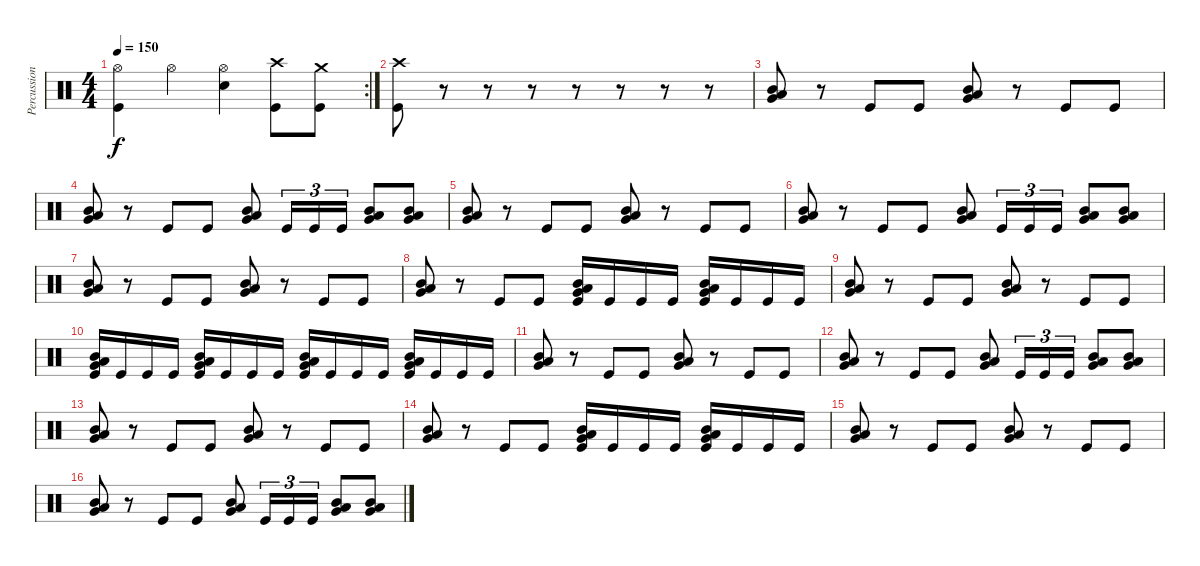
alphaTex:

\track ("Percussion" "Percussion") {instrument percussion}
\staff {score}
\articulation defaults
\rc 2
\ts (4 4)
\tempo 150
\clef neutral
\ks c
("Kick (hit)" "Hi-Hat (open)").4{dy f} "Hi-Hat (open)".4 ("Hi-Hat (open)" "Snare (hit) 2").4 ("Kick (hit)" "Crash high (hit)").8 ("Kick (hit)" "Crash medium (hit)").8 |
("Kick (hit)" "Crash high (hit)").8 r.8 r.8 r.8 r.8 r.8 r.8 r.8 |
("Very Low Tom (hit)" "Mid Tom (hit)" "Low Tom (hit)").8 r.8 "Kick (hit)".8 "Kick (hit)".8 ("Very Low Tom (hit)" "Mid Tom (hit)" "Low Tom (hit)").8 r.8 "Kick (hit)".8 "Kick (hit)".8 |
("Very Low Tom (hit)" "Mid Tom (hit)" "Low Tom (hit)").8 r.8 "Kick (hit)".8 "Kick (hit)".8 ("Very Low Tom (hit)" "Mid Tom (hit)" "Low Tom (hit)").8 "Kick (hit)".16{tu (3 2)} "Kick (hit)".16{tu (3 2)} "Kick (hit)".16{tu (3 2)} ("Very Low Tom (hit)" "Mid Tom (hit)" "Low Tom (hit)").8 ("Very Low Tom (hit)" "Mid Tom (hit)" "Low Tom (hit)").8 |
("Very Low Tom (hit)" "Mid Tom (hit)" "Low Tom (hit)").8 r.8 "Kick (hit)".8 "Kick (hit)".8 ("Very Low Tom (hit)" "Mid Tom (hit)" "Low Tom (hit)").8 r.8 "Kick (hit)".8 "Kick (hit)".8 |
("Very Low Tom (hit)" "Mid Tom (hit)" "Low Tom (hit)").8 r.8 "Kick (hit)".8 "Kick (hit)".8 ("Very Low Tom (hit)" "Mid Tom (hit)" "Low Tom (hit)").8 "Kick (hit)".16{tu (3 2)} "Kick (hit)".16{tu (3 2)} "Kick (hit)".16{tu (3 2)} ("Very Low Tom (hit)" "Mid Tom (hit)" "Low Tom (hit)").8 ("Very Low Tom (hit)" "Mid Tom (hit)" "Low Tom (hit)").8 |
("Very Low Tom (hit)" "Mid Tom (hit)" "Low Tom (hit)").8 r.8 "Kick (hit)".8 "Kick (hit)".8 ("Very Low Tom (hit)" "Mid Tom (hit)" "Low Tom (hit)").8 r.8 "Kick (hit)".8 "Kick (hit)".8 |
("Very Low Tom (hit)" "Mid Tom (hit)" "Low Tom (hit)").8 r.8 "Kick (hit)".8 "Kick (hit)".8 ("Kick (hit)" "Very Low Tom (hit)" "Mid Tom (hit)" "Low Tom (hit)").16 "Kick (hit)".16 "Kick (hit)".16 "Kick (hit)".16 ("Kick (hit)" "Very Low Tom (hit)" "Mid Tom (hit)" "Low Tom (hit)").16 "Kick (hit)".16 "Kick (hit)".16 "Kick (hit)".16 |
("Very Low Tom (hit)" "Mid Tom (hit)" "Low Tom (hit)").8 r.8 "Kick (hit)".8 "Kick (hit)".8 ("Very Low Tom (hit)" "Mid Tom (hit)" "Low Tom (hit)").8 r.8 "Kick (hit)".8 "Kick (hit)".8 |
("Kick (hit)" "Very Low Tom (hit)" "Mid Tom (hit)" "Low Tom (hit)").16 "Kick (hit)".16 "Kick (hit)".16 "Kick (hit)".16 ("Kick (hit)" "Very Low Tom (hit)" "Mid Tom (hit)" "Low Tom (hit)").16 "Kick (hit)".16 "Kick (hit)".16 "Kick (hit)".16 ("Kick (hit)" "Very Low Tom (hit)" "Mid Tom (hit)" "Low Tom (hit)").16 "Kick (hit)".16 "Kick (hit)".16 "Kick (hit)".16 ("Kick (hit)" "Very Low Tom (hit)" "Mid Tom (hit)" "Low Tom (hit)").16 "Kick (hit)".16 "Kick (hit)".16 "Kick (hit)".16 |
("Very Low Tom (hit)" "Mid Tom (hit)" "Low Tom (hit)").8 r.8 "Kick (hit)".8 "Kick (hit)".8 ("Very Low Tom (hit)" "Mid Tom (hit)" "Low Tom (hit)").8 r.8 "Kick (hit)".8 "Kick (hit)".8 |
("Very Low Tom (hit)" "Mid Tom (hit)" "Low Tom (hit)").8 r.8 "Kick (hit)".8 "Kick (hit)".8 ("Very Low Tom (hit)" "Mid Tom (hit)" "Low Tom (hit)").8 "Kick (hit)".16{tu (3 2)} "Kick (hit)".16{tu (3 2)} "Kick (hit)".16{tu (3 2)} ("Very Low Tom (hit)" "Mid Tom (hit)" "Low Tom (hit)").8 ("Very Low Tom (hit)" "Mid Tom (hit)" "Low Tom (hit)").8 |
("Very Low Tom (hit)" "Mid Tom (hit)" "Low Tom (hit)").8 r.8 "Kick (hit)".8 "Kick (hit)".8 ("Very Low Tom (hit)" "Mid Tom (hit)" "Low Tom (hit)").8 r.8 "Kick (hit)".8 "Kick (hit)".8 |
("Very Low Tom (hit)" "Mid Tom (hit)" "Low Tom (hit)").8 r.8 "Kick (hit)".8 "Kick (hit)".8 ("Kick (hit)" "Very Low Tom (hit)" "Mid Tom (hit)" "Low Tom (hit)").16 "Kick (hit)".16 "Kick (hit)".16 "Kick (hit)".16 ("Kick (hit)" "Very Low Tom (hit)" "Mid Tom (hit)" "Low Tom (hit)").16 "Kick (hit)".16 "Kick (hit)".16 "Kick (hit)".16 |
("Very Low Tom (hit)" "Mid Tom (hit)" "Low Tom (hit)").8 r.8 "Kick (hit)".8 "Kick (hit)".8 ("Very Low Tom (hit)" "Mid Tom (hit)" "Low Tom (hit)").8 r.8 "Kick (hit)".8 "Kick (hit)".8 |
("Very Low Tom (hit)" "Mid Tom (hit)" "Low Tom (hit)").8 r.8 "Kick (hit)".8 "Kick (hit)".8 ("Very Low Tom (hit)" "Mid Tom (hit)" "Low Tom (hit)").8 "Kick (hit)".16{tu (3 2)} "Kick (hit)".16{tu (3 2)} "Kick (hit)".16{tu (3 2)} ("Very Low Tom (hit)" "Mid Tom (hit)" "Low Tom (hit)").8 ("Very Low Tom (hit)" "Mid Tom (hit)" "Low Tom (hit)").8
